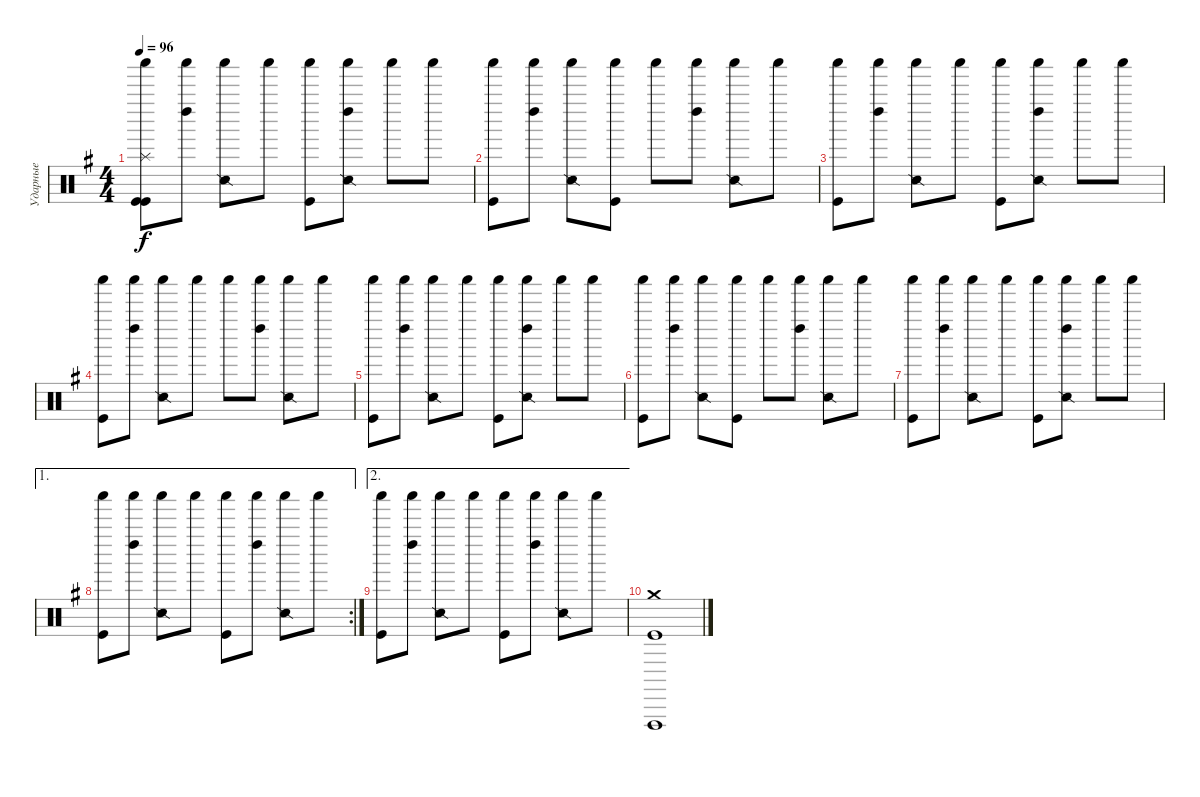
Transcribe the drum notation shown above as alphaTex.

\track ("Ударные" "Ударные") {instrument percussion}
\staff {score}
\articulation defaults
\ts (4 4)
\tempo 96
\clef neutral
\ks eminor
("Shaker (hit)" "Splash (hit)" "Kick (hit)" "Kick (hit)").8{dy f} ("Shaker (hit)" "Left Maraca (hit)").8 ("Shaker (hit)" "Snare (side stick) 2").8 "Shaker (hit)".8 ("Shaker (hit)" "Kick (hit)").8 ("Shaker (hit)" "Snare (side stick) 2" "Left Maraca (hit)").8 "Shaker (hit)".8 "Shaker (hit)".8 |
("Shaker (hit)" "Kick (hit)").8 ("Shaker (hit)" "Left Maraca (hit)").8 ("Shaker (hit)" "Snare (side stick) 2").8 ("Shaker (hit)" "Kick (hit)").8 "Shaker (hit)".8 ("Shaker (hit)" "Left Maraca (hit)").8 ("Shaker (hit)" "Snare (side stick) 2").8 "Shaker (hit)".8 |
("Shaker (hit)" "Kick (hit)").8 ("Shaker (hit)" "Left Maraca (hit)").8 ("Shaker (hit)" "Snare (side stick) 2").8 "Shaker (hit)".8 ("Shaker (hit)" "Kick (hit)").8 ("Shaker (hit)" "Snare (side stick) 2" "Left Maraca (hit)").8 "Shaker (hit)".8 "Shaker (hit)".8 |
("Shaker (hit)" "Kick (hit)").8 ("Shaker (hit)" "Left Maraca (hit)").8 ("Shaker (hit)" "Snare (side stick) 2").8 "Shaker (hit)".8 "Shaker (hit)".8 ("Shaker (hit)" "Left Maraca (hit)").8 ("Shaker (hit)" "Snare (side stick) 2").8 "Shaker (hit)".8 |
("Shaker (hit)" "Kick (hit)").8 ("Shaker (hit)" "Left Maraca (hit)").8 ("Shaker (hit)" "Snare (side stick) 2").8 "Shaker (hit)".8 ("Shaker (hit)" "Kick (hit)").8 ("Shaker (hit)" "Snare (side stick) 2" "Left Maraca (hit)").8 "Shaker (hit)".8 "Shaker (hit)".8 |
("Shaker (hit)" "Kick (hit)").8 ("Shaker (hit)" "Left Maraca (hit)").8 ("Shaker (hit)" "Snare (side stick) 2").8 ("Shaker (hit)" "Kick (hit)").8 "Shaker (hit)".8 ("Shaker (hit)" "Left Maraca (hit)").8 ("Shaker (hit)" "Snare (side stick) 2").8 "Shaker (hit)".8 |
("Shaker (hit)" "Kick (hit)").8 ("Shaker (hit)" "Left Maraca (hit)").8 ("Shaker (hit)" "Snare (side stick) 2").8 "Shaker (hit)".8 ("Shaker (hit)" "Kick (hit)").8 ("Shaker (hit)" "Snare (side stick) 2" "Left Maraca (hit)").8 "Shaker (hit)".8 "Shaker (hit)".8 |
\ae 1
\rc 2
("Shaker (hit)" "Kick (hit)").8 ("Shaker (hit)" "Left Maraca (hit)").8 ("Shaker (hit)" "Snare (side stick) 2").8 "Shaker (hit)".8 ("Shaker (hit)" "Kick (hit)").8 ("Shaker (hit)" "Left Maraca (hit)").8 ("Shaker (hit)" "Snare (side stick) 2").8 "Shaker (hit)".8 |
\ae 2
("Shaker (hit)" "Kick (hit)").8 ("Shaker (hit)" "Left Maraca (hit)").8 ("Shaker (hit)" "Snare (side stick) 2").8 "Shaker (hit)".8 ("Shaker (hit)" "Kick (hit)").8 ("Shaker (hit)" "Left Maraca (hit)").8 ("Shaker (hit)" "Snare (side stick) 2").8 "Shaker (hit)".8 |
("Vibraslap (hit)" "Crash medium (hit)" "Kick (hit)").1
